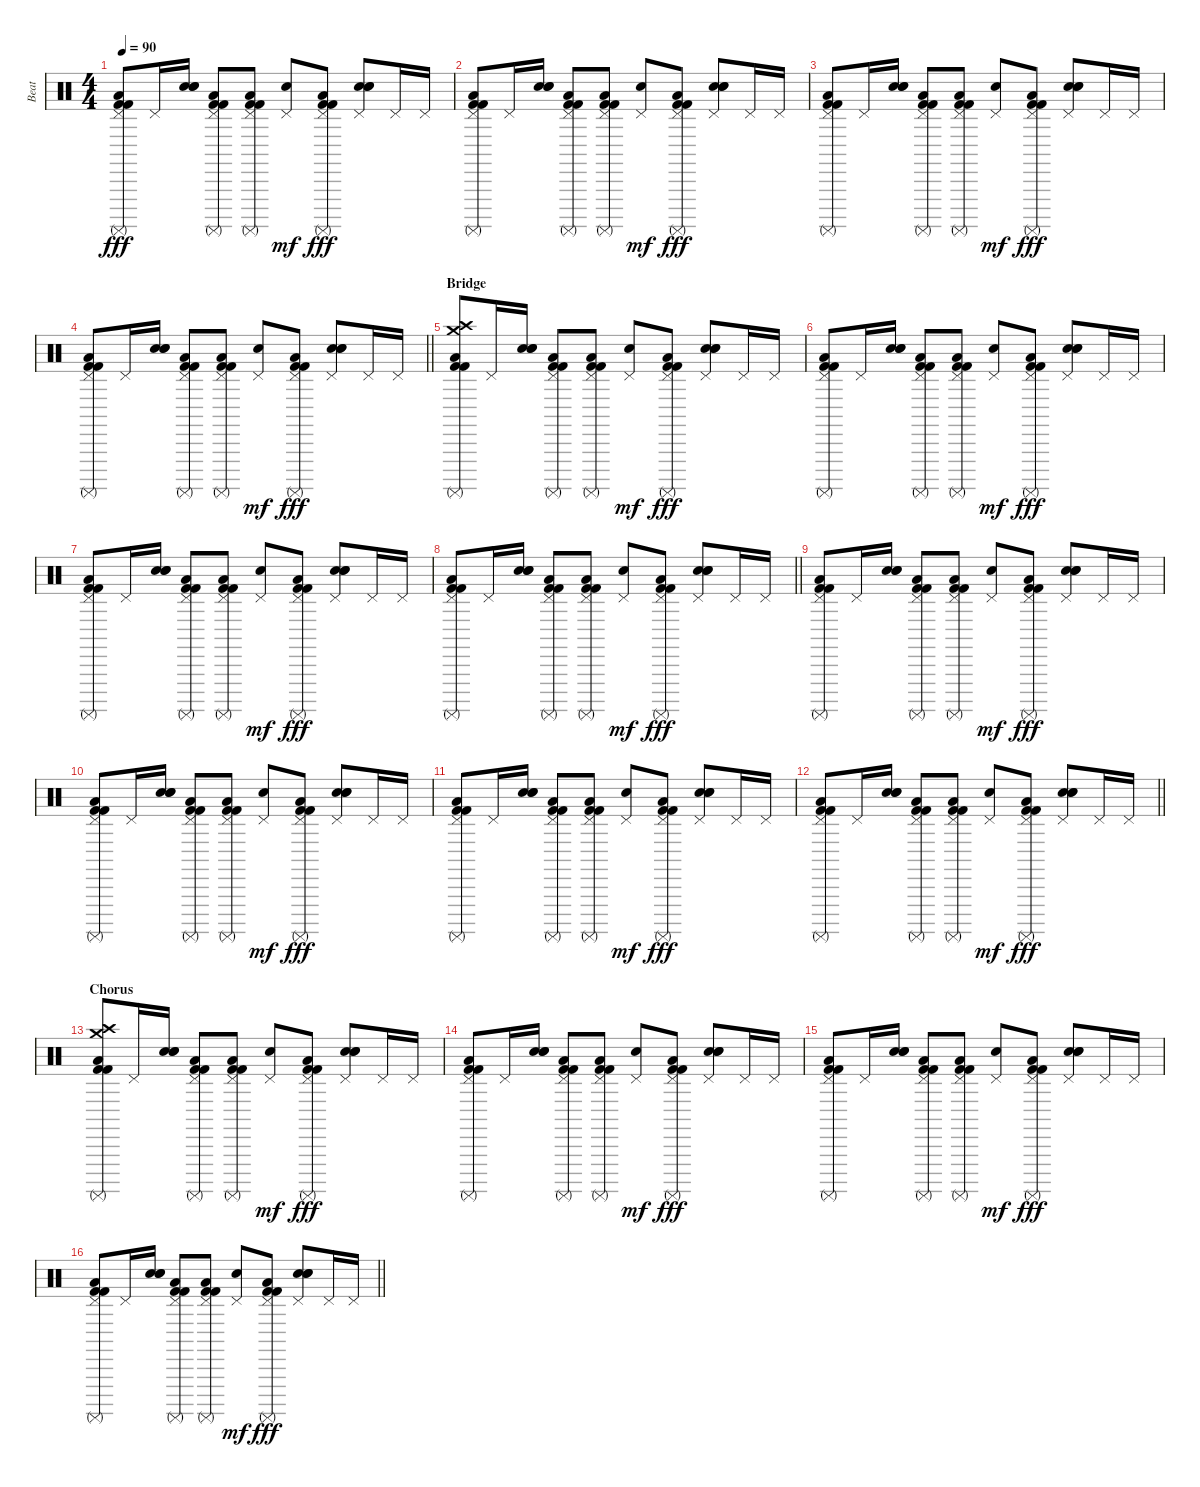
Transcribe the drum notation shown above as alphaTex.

\track ("Beat " "Beat ") {instrument percussion}
\staff {score}
\articulation defaults
\ts (4 4)
\tempo 90
\clef neutral
\ks c
("Pedal Hi-Hat (hit)" "Surdo (mute)" "Low Floor Tom (hit)" "Kick (hit) 2" "Kick (hit) 2").8{dy fff} "Pedal Hi-Hat (hit)".16 ("Electric Snare (hit)" "Electric Snare (hit)" "Electric Snare (hit)").16 ("Pedal Hi-Hat (hit)" "Surdo (mute)" "Low Floor Tom (hit)" "Kick (hit) 2" "Kick (hit) 2").8 ("Pedal Hi-Hat (hit)" "Surdo (mute)" "Low Floor Tom (hit)" "Kick (hit) 2" "Kick (hit) 2").8 ("Pedal Hi-Hat (hit)" "Electric Snare (hit)").8{dy mf} ("Pedal Hi-Hat (hit)" "Surdo (mute)" "Low Floor Tom (hit)" "Kick (hit) 2" "Kick (hit) 2").8{dy fff} ("Pedal Hi-Hat (hit)" "Electric Snare (hit)" "Electric Snare (hit)" "Electric Snare (hit)").8 "Pedal Hi-Hat (hit)".16 "Pedal Hi-Hat (hit)".16 |
("Pedal Hi-Hat (hit)" "Surdo (mute)" "Low Floor Tom (hit)" "Kick (hit) 2" "Kick (hit) 2").8 "Pedal Hi-Hat (hit)".16 ("Electric Snare (hit)" "Electric Snare (hit)" "Electric Snare (hit)").16 ("Pedal Hi-Hat (hit)" "Surdo (mute)" "Low Floor Tom (hit)" "Kick (hit) 2" "Kick (hit) 2").8 ("Pedal Hi-Hat (hit)" "Surdo (mute)" "Low Floor Tom (hit)" "Kick (hit) 2" "Kick (hit) 2").8 ("Pedal Hi-Hat (hit)" "Electric Snare (hit)").8{dy mf} ("Pedal Hi-Hat (hit)" "Surdo (mute)" "Low Floor Tom (hit)" "Kick (hit) 2" "Kick (hit) 2").8{dy fff} ("Pedal Hi-Hat (hit)" "Electric Snare (hit)" "Electric Snare (hit)" "Electric Snare (hit)").8 "Pedal Hi-Hat (hit)".16 "Pedal Hi-Hat (hit)".16 |
("Pedal Hi-Hat (hit)" "Surdo (mute)" "Low Floor Tom (hit)" "Kick (hit) 2" "Kick (hit) 2").8 "Pedal Hi-Hat (hit)".16 ("Electric Snare (hit)" "Electric Snare (hit)" "Electric Snare (hit)").16 ("Pedal Hi-Hat (hit)" "Surdo (mute)" "Low Floor Tom (hit)" "Kick (hit) 2" "Kick (hit) 2").8 ("Pedal Hi-Hat (hit)" "Surdo (mute)" "Low Floor Tom (hit)" "Kick (hit) 2" "Kick (hit) 2").8 ("Pedal Hi-Hat (hit)" "Electric Snare (hit)").8{dy mf} ("Pedal Hi-Hat (hit)" "Surdo (mute)" "Low Floor Tom (hit)" "Kick (hit) 2" "Kick (hit) 2").8{dy fff} ("Pedal Hi-Hat (hit)" "Electric Snare (hit)" "Electric Snare (hit)" "Electric Snare (hit)").8 "Pedal Hi-Hat (hit)".16 "Pedal Hi-Hat (hit)".16 |
\barLineRight lightlight
("Pedal Hi-Hat (hit)" "Surdo (mute)" "Low Floor Tom (hit)" "Kick (hit) 2" "Kick (hit) 2").8 "Pedal Hi-Hat (hit)".16 ("Electric Snare (hit)" "Electric Snare (hit)" "Electric Snare (hit)").16 ("Pedal Hi-Hat (hit)" "Surdo (mute)" "Low Floor Tom (hit)" "Kick (hit) 2" "Kick (hit) 2").8 ("Pedal Hi-Hat (hit)" "Surdo (mute)" "Low Floor Tom (hit)" "Kick (hit) 2" "Kick (hit) 2").8 ("Pedal Hi-Hat (hit)" "Electric Snare (hit)").8{dy mf} ("Pedal Hi-Hat (hit)" "Surdo (mute)" "Low Floor Tom (hit)" "Kick (hit) 2" "Kick (hit) 2").8{dy fff} ("Pedal Hi-Hat (hit)" "Electric Snare (hit)" "Electric Snare (hit)" "Electric Snare (hit)").8 "Pedal Hi-Hat (hit)".16 "Pedal Hi-Hat (hit)".16 |
\section ("" "Bridge")
("Crash medium (hit)" "Crash high (hit)" "Surdo (mute)" "Low Floor Tom (hit)" "Kick (hit) 2" "Kick (hit) 2").8 "Pedal Hi-Hat (hit)".16 ("Electric Snare (hit)" "Electric Snare (hit)" "Electric Snare (hit)").16 ("Pedal Hi-Hat (hit)" "Surdo (mute)" "Low Floor Tom (hit)" "Kick (hit) 2" "Kick (hit) 2").8 ("Pedal Hi-Hat (hit)" "Surdo (mute)" "Low Floor Tom (hit)" "Kick (hit) 2" "Kick (hit) 2").8 ("Pedal Hi-Hat (hit)" "Electric Snare (hit)").8{dy mf} ("Pedal Hi-Hat (hit)" "Surdo (mute)" "Low Floor Tom (hit)" "Kick (hit) 2" "Kick (hit) 2").8{dy fff} ("Pedal Hi-Hat (hit)" "Electric Snare (hit)" "Electric Snare (hit)" "Electric Snare (hit)").8 "Pedal Hi-Hat (hit)".16 "Pedal Hi-Hat (hit)".16 |
("Pedal Hi-Hat (hit)" "Surdo (mute)" "Low Floor Tom (hit)" "Kick (hit) 2" "Kick (hit) 2").8 "Pedal Hi-Hat (hit)".16 ("Electric Snare (hit)" "Electric Snare (hit)" "Electric Snare (hit)").16 ("Pedal Hi-Hat (hit)" "Surdo (mute)" "Low Floor Tom (hit)" "Kick (hit) 2" "Kick (hit) 2").8 ("Pedal Hi-Hat (hit)" "Surdo (mute)" "Low Floor Tom (hit)" "Kick (hit) 2" "Kick (hit) 2").8 ("Pedal Hi-Hat (hit)" "Electric Snare (hit)").8{dy mf} ("Pedal Hi-Hat (hit)" "Surdo (mute)" "Low Floor Tom (hit)" "Kick (hit) 2" "Kick (hit) 2").8{dy fff} ("Pedal Hi-Hat (hit)" "Electric Snare (hit)" "Electric Snare (hit)" "Electric Snare (hit)").8 "Pedal Hi-Hat (hit)".16 "Pedal Hi-Hat (hit)".16 |
("Pedal Hi-Hat (hit)" "Surdo (mute)" "Low Floor Tom (hit)" "Kick (hit) 2" "Kick (hit) 2").8 "Pedal Hi-Hat (hit)".16 ("Electric Snare (hit)" "Electric Snare (hit)" "Electric Snare (hit)").16 ("Pedal Hi-Hat (hit)" "Surdo (mute)" "Low Floor Tom (hit)" "Kick (hit) 2" "Kick (hit) 2").8 ("Pedal Hi-Hat (hit)" "Surdo (mute)" "Low Floor Tom (hit)" "Kick (hit) 2" "Kick (hit) 2").8 ("Pedal Hi-Hat (hit)" "Electric Snare (hit)").8{dy mf} ("Pedal Hi-Hat (hit)" "Surdo (mute)" "Low Floor Tom (hit)" "Kick (hit) 2" "Kick (hit) 2").8{dy fff} ("Pedal Hi-Hat (hit)" "Electric Snare (hit)" "Electric Snare (hit)" "Electric Snare (hit)").8 "Pedal Hi-Hat (hit)".16 "Pedal Hi-Hat (hit)".16 |
\barLineRight lightlight
("Pedal Hi-Hat (hit)" "Surdo (mute)" "Low Floor Tom (hit)" "Kick (hit) 2" "Kick (hit) 2").8 "Pedal Hi-Hat (hit)".16 ("Electric Snare (hit)" "Electric Snare (hit)" "Electric Snare (hit)").16 ("Pedal Hi-Hat (hit)" "Surdo (mute)" "Low Floor Tom (hit)" "Kick (hit) 2" "Kick (hit) 2").8 ("Pedal Hi-Hat (hit)" "Surdo (mute)" "Low Floor Tom (hit)" "Kick (hit) 2" "Kick (hit) 2").8 ("Pedal Hi-Hat (hit)" "Electric Snare (hit)").8{dy mf} ("Pedal Hi-Hat (hit)" "Surdo (mute)" "Low Floor Tom (hit)" "Kick (hit) 2" "Kick (hit) 2").8{dy fff} ("Pedal Hi-Hat (hit)" "Electric Snare (hit)" "Electric Snare (hit)" "Electric Snare (hit)").8 "Pedal Hi-Hat (hit)".16 "Pedal Hi-Hat (hit)".16 |
("Pedal Hi-Hat (hit)" "Surdo (mute)" "Low Floor Tom (hit)" "Kick (hit) 2" "Kick (hit) 2").8 "Pedal Hi-Hat (hit)".16 ("Electric Snare (hit)" "Electric Snare (hit)" "Electric Snare (hit)").16 ("Pedal Hi-Hat (hit)" "Surdo (mute)" "Low Floor Tom (hit)" "Kick (hit) 2" "Kick (hit) 2").8 ("Pedal Hi-Hat (hit)" "Surdo (mute)" "Low Floor Tom (hit)" "Kick (hit) 2" "Kick (hit) 2").8 ("Pedal Hi-Hat (hit)" "Electric Snare (hit)").8{dy mf} ("Pedal Hi-Hat (hit)" "Surdo (mute)" "Low Floor Tom (hit)" "Kick (hit) 2" "Kick (hit) 2").8{dy fff} ("Pedal Hi-Hat (hit)" "Electric Snare (hit)" "Electric Snare (hit)" "Electric Snare (hit)").8 "Pedal Hi-Hat (hit)".16 "Pedal Hi-Hat (hit)".16 |
("Pedal Hi-Hat (hit)" "Surdo (mute)" "Low Floor Tom (hit)" "Kick (hit) 2" "Kick (hit) 2").8 "Pedal Hi-Hat (hit)".16 ("Electric Snare (hit)" "Electric Snare (hit)" "Electric Snare (hit)").16 ("Pedal Hi-Hat (hit)" "Surdo (mute)" "Low Floor Tom (hit)" "Kick (hit) 2" "Kick (hit) 2").8 ("Pedal Hi-Hat (hit)" "Surdo (mute)" "Low Floor Tom (hit)" "Kick (hit) 2" "Kick (hit) 2").8 ("Pedal Hi-Hat (hit)" "Electric Snare (hit)").8{dy mf} ("Pedal Hi-Hat (hit)" "Surdo (mute)" "Low Floor Tom (hit)" "Kick (hit) 2" "Kick (hit) 2").8{dy fff} ("Pedal Hi-Hat (hit)" "Electric Snare (hit)" "Electric Snare (hit)" "Electric Snare (hit)").8 "Pedal Hi-Hat (hit)".16 "Pedal Hi-Hat (hit)".16 |
("Pedal Hi-Hat (hit)" "Surdo (mute)" "Low Floor Tom (hit)" "Kick (hit) 2" "Kick (hit) 2").8 "Pedal Hi-Hat (hit)".16 ("Electric Snare (hit)" "Electric Snare (hit)" "Electric Snare (hit)").16 ("Pedal Hi-Hat (hit)" "Surdo (mute)" "Low Floor Tom (hit)" "Kick (hit) 2" "Kick (hit) 2").8 ("Pedal Hi-Hat (hit)" "Surdo (mute)" "Low Floor Tom (hit)" "Kick (hit) 2" "Kick (hit) 2").8 ("Pedal Hi-Hat (hit)" "Electric Snare (hit)").8{dy mf} ("Pedal Hi-Hat (hit)" "Surdo (mute)" "Low Floor Tom (hit)" "Kick (hit) 2" "Kick (hit) 2").8{dy fff} ("Pedal Hi-Hat (hit)" "Electric Snare (hit)" "Electric Snare (hit)" "Electric Snare (hit)").8 "Pedal Hi-Hat (hit)".16 "Pedal Hi-Hat (hit)".16 |
\barLineRight lightlight
("Pedal Hi-Hat (hit)" "Surdo (mute)" "Low Floor Tom (hit)" "Kick (hit) 2" "Kick (hit) 2").8 "Pedal Hi-Hat (hit)".16 ("Electric Snare (hit)" "Electric Snare (hit)" "Electric Snare (hit)").16 ("Pedal Hi-Hat (hit)" "Surdo (mute)" "Low Floor Tom (hit)" "Kick (hit) 2" "Kick (hit) 2").8 ("Pedal Hi-Hat (hit)" "Surdo (mute)" "Low Floor Tom (hit)" "Kick (hit) 2" "Kick (hit) 2").8 ("Pedal Hi-Hat (hit)" "Electric Snare (hit)").8{dy mf} ("Pedal Hi-Hat (hit)" "Surdo (mute)" "Low Floor Tom (hit)" "Kick (hit) 2" "Kick (hit) 2").8{dy fff} ("Pedal Hi-Hat (hit)" "Electric Snare (hit)" "Electric Snare (hit)" "Electric Snare (hit)").8 "Pedal Hi-Hat (hit)".16 "Pedal Hi-Hat (hit)".16 |
\section ("" "Chorus")
("Crash medium (hit)" "Crash high (hit)" "Surdo (mute)" "Low Floor Tom (hit)" "Kick (hit) 2" "Kick (hit) 2").8 "Pedal Hi-Hat (hit)".16 ("Electric Snare (hit)" "Electric Snare (hit)" "Electric Snare (hit)").16 ("Pedal Hi-Hat (hit)" "Surdo (mute)" "Low Floor Tom (hit)" "Kick (hit) 2" "Kick (hit) 2").8 ("Pedal Hi-Hat (hit)" "Surdo (mute)" "Low Floor Tom (hit)" "Kick (hit) 2" "Kick (hit) 2").8 ("Pedal Hi-Hat (hit)" "Electric Snare (hit)").8{dy mf} ("Pedal Hi-Hat (hit)" "Surdo (mute)" "Low Floor Tom (hit)" "Kick (hit) 2" "Kick (hit) 2").8{dy fff} ("Pedal Hi-Hat (hit)" "Electric Snare (hit)" "Electric Snare (hit)" "Electric Snare (hit)").8 "Pedal Hi-Hat (hit)".16 "Pedal Hi-Hat (hit)".16 |
("Pedal Hi-Hat (hit)" "Surdo (mute)" "Low Floor Tom (hit)" "Kick (hit) 2" "Kick (hit) 2").8 "Pedal Hi-Hat (hit)".16 ("Electric Snare (hit)" "Electric Snare (hit)" "Electric Snare (hit)").16 ("Pedal Hi-Hat (hit)" "Surdo (mute)" "Low Floor Tom (hit)" "Kick (hit) 2" "Kick (hit) 2").8 ("Pedal Hi-Hat (hit)" "Surdo (mute)" "Low Floor Tom (hit)" "Kick (hit) 2" "Kick (hit) 2").8 ("Pedal Hi-Hat (hit)" "Electric Snare (hit)").8{dy mf} ("Pedal Hi-Hat (hit)" "Surdo (mute)" "Low Floor Tom (hit)" "Kick (hit) 2" "Kick (hit) 2").8{dy fff} ("Pedal Hi-Hat (hit)" "Electric Snare (hit)" "Electric Snare (hit)" "Electric Snare (hit)").8 "Pedal Hi-Hat (hit)".16 "Pedal Hi-Hat (hit)".16 |
("Pedal Hi-Hat (hit)" "Surdo (mute)" "Low Floor Tom (hit)" "Kick (hit) 2" "Kick (hit) 2").8 "Pedal Hi-Hat (hit)".16 ("Electric Snare (hit)" "Electric Snare (hit)" "Electric Snare (hit)").16 ("Pedal Hi-Hat (hit)" "Surdo (mute)" "Low Floor Tom (hit)" "Kick (hit) 2" "Kick (hit) 2").8 ("Pedal Hi-Hat (hit)" "Surdo (mute)" "Low Floor Tom (hit)" "Kick (hit) 2" "Kick (hit) 2").8 ("Pedal Hi-Hat (hit)" "Electric Snare (hit)").8{dy mf} ("Pedal Hi-Hat (hit)" "Surdo (mute)" "Low Floor Tom (hit)" "Kick (hit) 2" "Kick (hit) 2").8{dy fff} ("Pedal Hi-Hat (hit)" "Electric Snare (hit)" "Electric Snare (hit)" "Electric Snare (hit)").8 "Pedal Hi-Hat (hit)".16 "Pedal Hi-Hat (hit)".16 |
\barLineRight lightlight
("Pedal Hi-Hat (hit)" "Surdo (mute)" "Low Floor Tom (hit)" "Kick (hit) 2" "Kick (hit) 2").8 "Pedal Hi-Hat (hit)".16 ("Electric Snare (hit)" "Electric Snare (hit)" "Electric Snare (hit)").16 ("Pedal Hi-Hat (hit)" "Surdo (mute)" "Low Floor Tom (hit)" "Kick (hit) 2" "Kick (hit) 2").8 ("Pedal Hi-Hat (hit)" "Surdo (mute)" "Low Floor Tom (hit)" "Kick (hit) 2" "Kick (hit) 2").8 ("Pedal Hi-Hat (hit)" "Electric Snare (hit)").8{dy mf} ("Pedal Hi-Hat (hit)" "Surdo (mute)" "Low Floor Tom (hit)" "Kick (hit) 2" "Kick (hit) 2").8{dy fff} ("Pedal Hi-Hat (hit)" "Electric Snare (hit)" "Electric Snare (hit)" "Electric Snare (hit)").8 "Pedal Hi-Hat (hit)".16 "Pedal Hi-Hat (hit)".16
